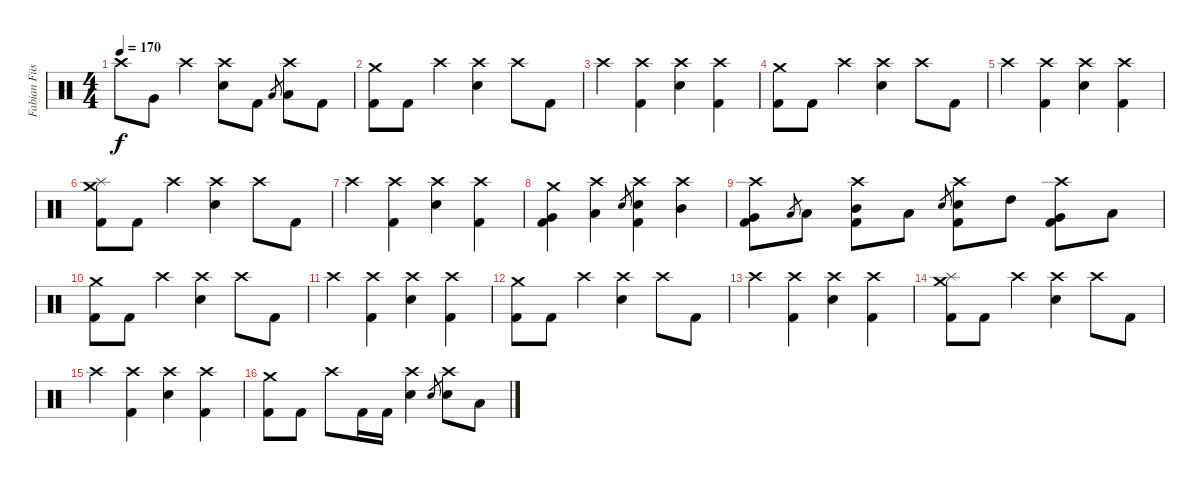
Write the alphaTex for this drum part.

\track ("Fabian Füss" "Fabian Füs") {instrument percussion}
\staff {score}
\articulation defaults
\ts (4 4)
\tempo 170
\clef neutral
\ks c "Crash high (hit)".8{dy f} "Very Low Tom (hit)".8 "Crash high (hit)".4
("Crash high (hit)" "Snare (hit) 2").8 "Kick (hit) 2".8 "Low Tom (hit)".8{gr} ("Crash high (hit)" "Low Tom (hit)").8 "Kick (hit) 2".8 |
("Crash medium (hit)" "Kick (hit) 2").8 "Kick (hit) 2".8 "Crash high (hit)".4 ("Crash high (hit)" "Snare (hit) 2").4 "Crash high (hit)".8 "Kick (hit) 2".8 |
"Crash high (hit)".4 ("Crash high (hit)" "Kick (hit) 2").4 ("Crash high (hit)" "Snare (hit) 2").4 ("Crash high (hit)" "Kick (hit) 2").4 |
("Crash medium (hit)" "Kick (hit) 2").8 "Kick (hit) 2".8 "Crash high (hit)".4 ("Crash high (hit)" "Snare (hit) 2").4 "Crash high (hit)".8 "Kick (hit) 2".8 |
"Crash high (hit)".4 ("Crash high (hit)" "Kick (hit) 2").4 ("Crash high (hit)" "Snare (hit) 2").4 ("Crash high (hit)" "Kick (hit) 2").4 |
("Crash medium (hit)" "Splash (hit)" "Kick (hit) 2").8 "Kick (hit) 2".8 "Crash high (hit)".4 ("Crash high (hit)" "Snare (hit) 2").4 "Crash high (hit)".8 "Kick (hit) 2".8 |
"Crash high (hit)".4 ("Crash high (hit)" "Kick (hit) 2").4 ("Crash high (hit)" "Snare (hit) 2").4 ("Crash high (hit)" "Kick (hit) 2").4 |
("Crash medium (hit)" "Very Low Tom (hit)" "Kick (hit) 2").4 ("Crash high (hit)" "Low Tom (hit)").4 "Snare (hit) 2".8{gr} ("Crash high (hit)" "Snare (hit) 2" "Kick (hit) 2").4 ("Crash high (hit)" "Mid Tom (hit)").4 |
("Crash high (hit)" "Very Low Tom (hit)" "Kick (hit) 2").8 "Low Tom (hit)".8{gr} "Low Tom (hit)".8 ("Crash high (hit)" "Mid Tom (hit)" "Kick (hit) 2").8 "Low Tom (hit)".8 "Snare (hit) 2".8{gr} ("Crash high (hit)" "Snare (hit) 2" "Kick (hit) 2").8 "High Tom (hit)".8 ("Crash high (hit)" "Very Low Tom (hit)" "Kick (hit) 2").8 "Low Tom (hit)".8 |
("Crash medium (hit)" "Kick (hit) 2").8 "Kick (hit) 2".8 "Crash high (hit)".4 ("Crash high (hit)" "Snare (hit) 2").4 "Crash high (hit)".8 "Kick (hit) 2".8 |
"Crash high (hit)".4 ("Crash high (hit)" "Kick (hit) 2").4 ("Crash high (hit)" "Snare (hit) 2").4 ("Crash high (hit)" "Kick (hit) 2").4 |
("Crash medium (hit)" "Kick (hit) 2").8 "Kick (hit) 2".8 "Crash high (hit)".4 ("Crash high (hit)" "Snare (hit) 2").4 "Crash high (hit)".8 "Kick (hit) 2".8 |
"Crash high (hit)".4 ("Crash high (hit)" "Kick (hit) 2").4 ("Crash high (hit)" "Snare (hit) 2").4 ("Crash high (hit)" "Kick (hit) 2").4 |
("Crash medium (hit)" "Splash (hit)" "Kick (hit) 2").8 "Kick (hit) 2".8 "Crash high (hit)".4 ("Crash high (hit)" "Snare (hit) 2").4 "Crash high (hit)".8 "Kick (hit) 2".8 |
"Crash high (hit)".4 ("Crash high (hit)" "Kick (hit) 2").4 ("Crash high (hit)" "Snare (hit) 2").4 ("Crash high (hit)" "Kick (hit) 2").4 |
("Crash medium (hit)" "Kick (hit) 2").8 "Kick (hit) 2".8 "Crash high (hit)".8 "Kick (hit) 2".16 "Kick (hit) 2".16 ("Crash high (hit)" "Snare (hit) 2").4 "Snare (hit) 2".8{gr} ("Crash high (hit)" "Snare (hit) 2").8 "Low Tom (hit)".8
